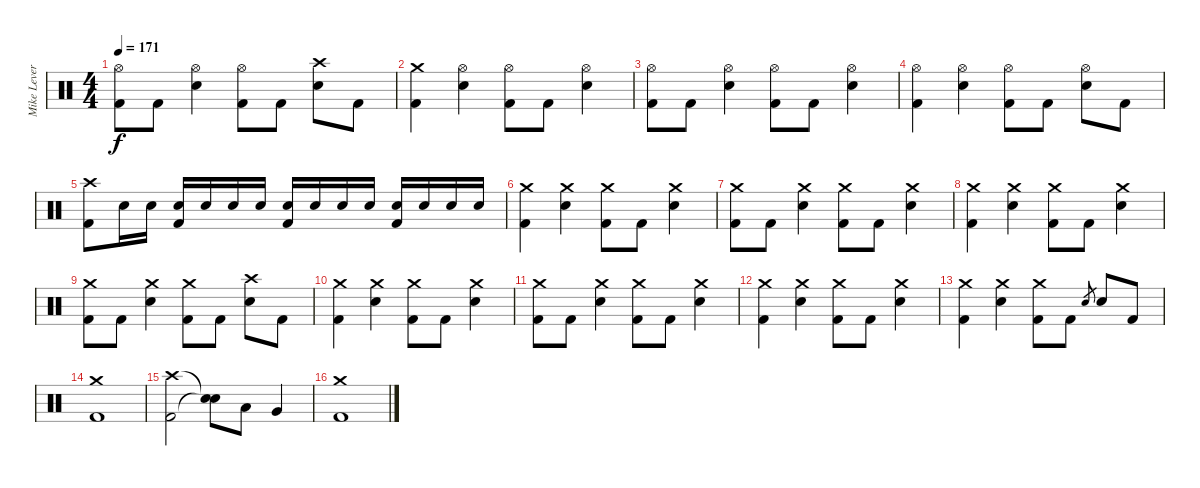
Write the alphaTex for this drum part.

\track ("Mike Leverence - Drums" "Mike Lever") {instrument percussion}
\staff {score}
\articulation defaults
\ts (4 4)
\tempo 171
\clef neutral
\ks c
("Hi-Hat (open)" "Kick (hit) 2").8{dy f} "Kick (hit) 2".8 ("Hi-Hat (open)" "Electric Snare (hit)").4 ("Hi-Hat (open)" "Kick (hit) 2").8 "Kick (hit) 2".8 ("Crash high (hit)" "Electric Snare (hit)").8 "Kick (hit) 2".8 |
("Crash medium (hit)" "Kick (hit) 2").4 ("Hi-Hat (open)" "Electric Snare (hit)").4 ("Hi-Hat (open)" "Kick (hit) 2").8 "Kick (hit) 2".8 ("Hi-Hat (open)" "Electric Snare (hit)").4 |
("Hi-Hat (open)" "Kick (hit) 2").8 "Kick (hit) 2".8 ("Hi-Hat (open)" "Electric Snare (hit)").4 ("Hi-Hat (open)" "Kick (hit) 2").8 "Kick (hit) 2".8 ("Hi-Hat (open)" "Electric Snare (hit)").4 |
("Hi-Hat (open)" "Kick (hit) 2").4 ("Hi-Hat (open)" "Electric Snare (hit)").4 ("Hi-Hat (open)" "Kick (hit) 2").8 "Kick (hit) 2".8 ("Hi-Hat (open)" "Electric Snare (hit)").8 "Kick (hit) 2".8 |
("Crash high (hit)" "Kick (hit) 2").8 "Electric Snare (hit)".16 "Electric Snare (hit)".16 ("Electric Snare (hit)" "Kick (hit) 2").16 "Electric Snare (hit)".16 "Electric Snare (hit)".16 "Electric Snare (hit)".16 ("Electric Snare (hit)" "Kick (hit) 2").16 "Electric Snare (hit)".16 "Electric Snare (hit)".16 "Electric Snare (hit)".16 ("Electric Snare (hit)" "Kick (hit) 2").16 "Electric Snare (hit)".16 "Electric Snare (hit)".16 "Electric Snare (hit)".16 |
("Crash medium (hit)" "Kick (hit) 2").4 ("Crash medium (hit)" "Electric Snare (hit)").4 ("Crash medium (hit)" "Kick (hit) 2").8 "Kick (hit) 2".8 ("Crash medium (hit)" "Electric Snare (hit)").4 |
("Crash medium (hit)" "Kick (hit) 2").8 "Kick (hit) 2".8 ("Crash medium (hit)" "Electric Snare (hit)").4 ("Crash medium (hit)" "Kick (hit) 2").8 "Kick (hit) 2".8 ("Crash medium (hit)" "Electric Snare (hit)").4 |
("Crash medium (hit)" "Kick (hit) 2").4 ("Crash medium (hit)" "Electric Snare (hit)").4 ("Crash medium (hit)" "Kick (hit) 2").8 "Kick (hit) 2".8 ("Crash medium (hit)" "Electric Snare (hit)").4 |
("Crash medium (hit)" "Kick (hit) 2").8 "Kick (hit) 2".8 ("Crash medium (hit)" "Electric Snare (hit)").4 ("Crash medium (hit)" "Kick (hit) 2").8 "Kick (hit) 2".8 ("Crash high (hit)" "Electric Snare (hit)").8 "Kick (hit) 2".8 |
("Crash medium (hit)" "Kick (hit) 2").4 ("Crash medium (hit)" "Electric Snare (hit)").4 ("Crash medium (hit)" "Kick (hit) 2").8 "Kick (hit) 2".8 ("Crash medium (hit)" "Electric Snare (hit)").4 |
("Crash medium (hit)" "Kick (hit) 2").8 "Kick (hit) 2".8 ("Crash medium (hit)" "Electric Snare (hit)").4 ("Crash medium (hit)" "Kick (hit) 2").8 "Kick (hit) 2".8 ("Crash medium (hit)" "Electric Snare (hit)").4 |
("Crash medium (hit)" "Kick (hit) 2").4 ("Crash medium (hit)" "Electric Snare (hit)").4 ("Crash medium (hit)" "Kick (hit) 2").8 "Kick (hit) 2".8 ("Crash medium (hit)" "Electric Snare (hit)").4 |
("Crash medium (hit)" "Kick (hit) 2").4 ("Crash medium (hit)" "Electric Snare (hit)").4 ("Crash medium (hit)" "Kick (hit) 2").8 "Kick (hit) 2".8 "Electric Snare (hit)".8{gr} "Electric Snare (hit)".8 "Kick (hit) 2".8 |
("Crash medium (hit)" "Kick (hit) 2").1 |
("Crash high (hit)" "Kick (hit) 2").2 ("Snare (hit)"{t} "Snare (hit)"{t}).8 "Low Tom (hit)".8 "Very Low Tom (hit)".4 |
("Crash medium (hit)" "Kick (hit) 2").1
